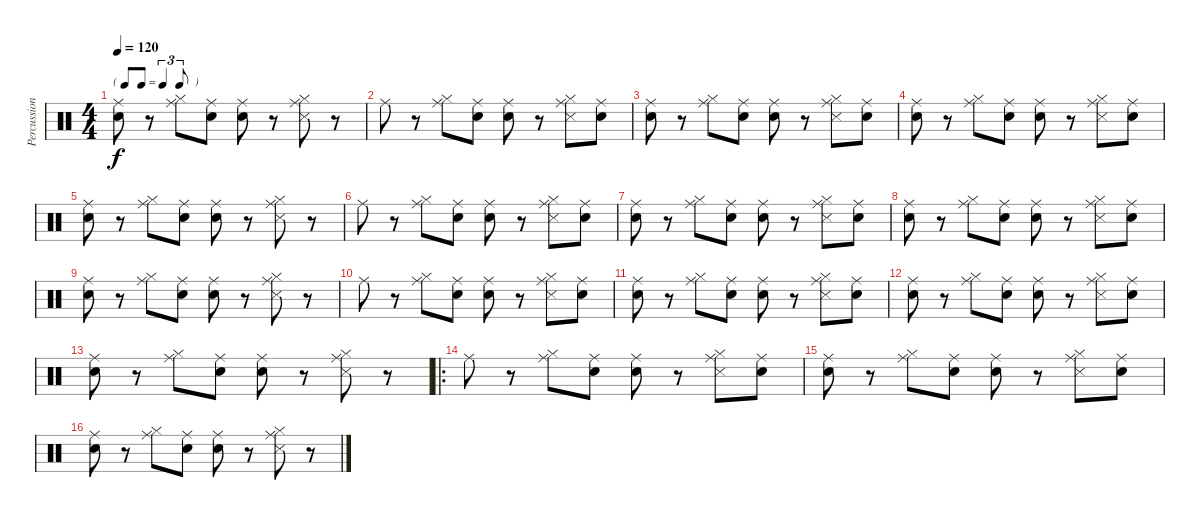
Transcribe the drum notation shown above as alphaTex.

\track ("Percussions" "Percussion") {instrument percussion}
\staff {score}
\articulation defaults
\ts (4 4)
\tf triplet8th
\tempo 120
\clef neutral
\ks c
("Snare (hit)" "Ride (middle)").8{dy f} r.8 ("Hi-Hat (closed)" "Ride (middle)").8 ("Snare (hit)" "Ride (middle)").8 ("Snare (hit)" "Ride (middle)").8 r.8 ("Hi-Hat (closed)" "Snare (side stick) 3" "Ride (middle)").8 r.8 |
"Ride (middle)".8 r.8 ("Hi-Hat (closed)" "Ride (middle)").8 ("Snare (hit)" "Ride (middle)").8 ("Snare (hit)" "Ride (middle)").8 r.8 ("Hi-Hat (closed)" "Snare (side stick) 3" "Ride (middle)").8 ("Snare (hit)" "Ride (middle)").8 |
("Snare (hit)" "Ride (middle)").8 r.8 ("Hi-Hat (closed)" "Ride (middle)").8 ("Snare (hit)" "Ride (middle)").8 ("Snare (hit)" "Ride (middle)").8 r.8 ("Hi-Hat (closed)" "Snare (side stick) 3" "Ride (middle)").8 ("Snare (hit)" "Ride (middle)").8 |
("Snare (hit)" "Ride (middle)").8 r.8 ("Hi-Hat (closed)" "Ride (middle)").8 ("Snare (hit)" "Ride (middle)").8 ("Snare (hit)" "Ride (middle)").8 r.8 ("Hi-Hat (closed)" "Snare (side stick) 3" "Ride (middle)").8 ("Snare (hit)" "Ride (middle)").8 |
("Snare (hit)" "Ride (middle)").8 r.8 ("Hi-Hat (closed)" "Ride (middle)").8 ("Snare (hit)" "Ride (middle)").8 ("Snare (hit)" "Ride (middle)").8 r.8 ("Hi-Hat (closed)" "Snare (side stick) 3" "Ride (middle)").8 r.8 |
"Ride (middle)".8 r.8 ("Hi-Hat (closed)" "Ride (middle)").8 ("Snare (hit)" "Ride (middle)").8 ("Snare (hit)" "Ride (middle)").8 r.8 ("Hi-Hat (closed)" "Snare (side stick) 3" "Ride (middle)").8 ("Snare (hit)" "Ride (middle)").8 |
("Snare (hit)" "Ride (middle)").8 r.8 ("Hi-Hat (closed)" "Ride (middle)").8 ("Snare (hit)" "Ride (middle)").8 ("Snare (hit)" "Ride (middle)").8 r.8 ("Hi-Hat (closed)" "Snare (side stick) 3" "Ride (middle)").8 ("Snare (hit)" "Ride (middle)").8 |
("Snare (hit)" "Ride (middle)").8 r.8 ("Hi-Hat (closed)" "Ride (middle)").8 ("Snare (hit)" "Ride (middle)").8 ("Snare (hit)" "Ride (middle)").8 r.8 ("Hi-Hat (closed)" "Snare (side stick) 3" "Ride (middle)").8 ("Snare (hit)" "Ride (middle)").8 |
("Snare (hit)" "Ride (middle)").8 r.8 ("Hi-Hat (closed)" "Ride (middle)").8 ("Snare (hit)" "Ride (middle)").8 ("Snare (hit)" "Ride (middle)").8 r.8 ("Hi-Hat (closed)" "Snare (side stick) 3" "Ride (middle)").8 r.8 |
"Ride (middle)".8 r.8 ("Hi-Hat (closed)" "Ride (middle)").8 ("Snare (hit)" "Ride (middle)").8 ("Snare (hit)" "Ride (middle)").8 r.8 ("Hi-Hat (closed)" "Snare (side stick) 3" "Ride (middle)").8 ("Snare (hit)" "Ride (middle)").8 |
("Snare (hit)" "Ride (middle)").8 r.8 ("Hi-Hat (closed)" "Ride (middle)").8 ("Snare (hit)" "Ride (middle)").8 ("Snare (hit)" "Ride (middle)").8 r.8 ("Hi-Hat (closed)" "Snare (side stick) 3" "Ride (middle)").8 ("Snare (hit)" "Ride (middle)").8 |
("Snare (hit)" "Ride (middle)").8 r.8 ("Hi-Hat (closed)" "Ride (middle)").8 ("Snare (hit)" "Ride (middle)").8 ("Snare (hit)" "Ride (middle)").8 r.8 ("Hi-Hat (closed)" "Snare (side stick) 3" "Ride (middle)").8 ("Snare (hit)" "Ride (middle)").8 |
("Snare (hit)" "Ride (middle)").8 r.8 ("Hi-Hat (closed)" "Ride (middle)").8 ("Snare (hit)" "Ride (middle)").8 ("Snare (hit)" "Ride (middle)").8 r.8 ("Hi-Hat (closed)" "Snare (side stick) 3" "Ride (middle)").8 r.8 |
\ro "Ride (middle)".8
r.8 ("Hi-Hat (closed)" "Ride (middle)").8 ("Snare (hit)" "Ride (middle)").8 ("Snare (hit)" "Ride (middle)").8 r.8 ("Hi-Hat (closed)" "Snare (side stick) 3" "Ride (middle)").8 ("Snare (hit)" "Ride (middle)").8 |
("Snare (hit)" "Ride (middle)").8 r.8 ("Hi-Hat (closed)" "Ride (middle)").8 ("Snare (hit)" "Ride (middle)").8 ("Snare (hit)" "Ride (middle)").8 r.8 ("Hi-Hat (closed)" "Snare (side stick) 3" "Ride (middle)").8 ("Snare (hit)" "Ride (middle)").8 |
("Snare (hit)" "Ride (middle)").8 r.8 ("Hi-Hat (closed)" "Ride (middle)").8 ("Snare (hit)" "Ride (middle)").8 ("Snare (hit)" "Ride (middle)").8 r.8 ("Hi-Hat (closed)" "Snare (side stick) 3" "Ride (middle)").8 r.8
